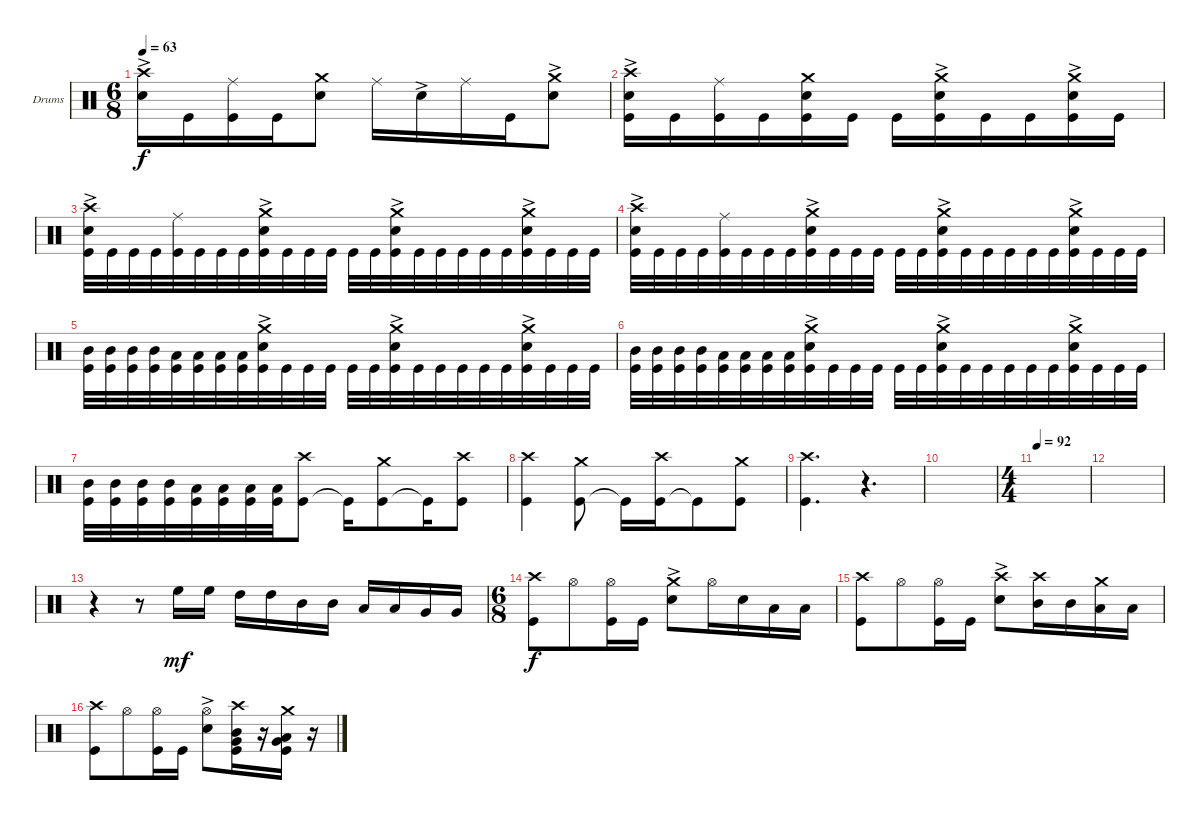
\defaultSystemsLayout 4
\bracketExtendMode groupsimilarinstruments
\firstSystemTrackNameOrientation horizontal
\otherSystemsTrackNameOrientation horizontal
\track ("Drumkit" "Drums") {instrument percussion}
\staff {score}
\articulation defaults
\ts (6 8)
\tempo 63
\clef neutral
\ks c
("Snare (hit) 2"{ac} "Crash high (hit)").16{dy f} "Kick (hit)".16 ("Kick (hit)" "Ride (middle)").16 "Kick (hit)".16 ("Snare (hit) 2" "Crash medium (hit)").8 "Ride (middle)".16 "Snare (hit) 2"{ac}.16 "Ride (middle)".16 "Kick (hit)".16 ("Snare (hit) 2"{ac} "Crash medium (hit)").8 |
("Snare (hit) 2"{ac} "Crash high (hit)" "Kick (hit)").16 "Kick (hit)".16 ("Kick (hit)" "Ride (middle)").16 "Kick (hit)".16 ("Snare (hit) 2" "Crash medium (hit)" "Kick (hit)").16 "Kick (hit)".16 "Kick (hit)".16 ("Snare (hit) 2"{ac} "Kick (hit)" "Crash medium (hit)").16 "Kick (hit)".16 "Kick (hit)".16 ("Snare (hit) 2"{ac} "Crash medium (hit)" "Kick (hit)").16 "Kick (hit)".16 |
("Snare (hit) 2"{ac} "Crash high (hit)" "Kick (hit)").32 "Kick (hit)".32 "Kick (hit)".32 "Kick (hit)".32 ("Kick (hit)" "Ride (middle)").32 "Kick (hit)".32 "Kick (hit)".32 "Kick (hit)".32 ("Snare (hit) 2"{ac} "Crash medium (hit)" "Kick (hit)").32 "Kick (hit)".32 "Kick (hit)".32 "Kick (hit)".32 "Kick (hit)".32 "Kick (hit)".32 ("Kick (hit)" "Snare (hit) 2"{ac} "Crash medium (hit)").32 "Kick (hit)".32 "Kick (hit)".32 "Kick (hit)".32 "Kick (hit)".32 "Kick (hit)".32 ("Kick (hit)" "Snare (hit) 2"{ac} "Crash medium (hit)").32 "Kick (hit)".32 "Kick (hit)".32 "Kick (hit)".32 |
("Snare (hit) 2"{ac} "Crash high (hit)" "Kick (hit)").32 "Kick (hit)".32 "Kick (hit)".32 "Kick (hit)".32 ("Kick (hit)" "Ride (middle)").32 "Kick (hit)".32 "Kick (hit)".32 "Kick (hit)".32 ("Snare (hit) 2"{ac} "Crash medium (hit)" "Kick (hit)").32 "Kick (hit)".32 "Kick (hit)".32 "Kick (hit)".32 "Kick (hit)".32 "Kick (hit)".32 ("Kick (hit)" "Snare (hit) 2"{ac} "Crash medium (hit)").32 "Kick (hit)".32 "Kick (hit)".32 "Kick (hit)".32 "Kick (hit)".32 "Kick (hit)".32 ("Kick (hit)" "Snare (hit) 2"{ac} "Crash medium (hit)").32 "Kick (hit)".32 "Kick (hit)".32 "Kick (hit)".32 |
("Kick (hit)" "Mid Tom (hit)").32 ("Kick (hit)" "Mid Tom (hit)").32 ("Kick (hit)" "Mid Tom (hit)").32 ("Kick (hit)" "Mid Tom (hit)").32 ("Kick (hit)" "Low Tom (hit)").32 ("Kick (hit)" "Low Tom (hit)").32 ("Kick (hit)" "Low Tom (hit)").32 ("Kick (hit)" "Low Tom (hit)").32 ("Snare (hit) 2"{ac} "Crash medium (hit)" "Kick (hit)").32 "Kick (hit)".32 "Kick (hit)".32 "Kick (hit)".32 "Kick (hit)".32 "Kick (hit)".32 ("Kick (hit)" "Snare (hit) 2"{ac} "Crash medium (hit)").32 "Kick (hit)".32 "Kick (hit)".32 "Kick (hit)".32 "Kick (hit)".32 "Kick (hit)".32 ("Kick (hit)" "Snare (hit) 2"{ac} "Crash medium (hit)").32 "Kick (hit)".32 "Kick (hit)".32 "Kick (hit)".32 |
("Kick (hit)" "Mid Tom (hit)").32 ("Kick (hit)" "Mid Tom (hit)").32 ("Kick (hit)" "Mid Tom (hit)").32 ("Kick (hit)" "Mid Tom (hit)").32 ("Kick (hit)" "Low Tom (hit)").32 ("Kick (hit)" "Low Tom (hit)").32 ("Kick (hit)" "Low Tom (hit)").32 ("Kick (hit)" "Low Tom (hit)").32 ("Snare (hit) 2"{ac} "Crash medium (hit)" "Kick (hit)").32 "Kick (hit)".32 "Kick (hit)".32 "Kick (hit)".32 "Kick (hit)".32 "Kick (hit)".32 ("Kick (hit)" "Snare (hit) 2"{ac} "Crash medium (hit)").32 "Kick (hit)".32 "Kick (hit)".32 "Kick (hit)".32 "Kick (hit)".32 "Kick (hit)".32 ("Kick (hit)" "Snare (hit) 2"{ac} "Crash medium (hit)").32 "Kick (hit)".32 "Kick (hit)".32 "Kick (hit)".32 |
("Kick (hit)" "Mid Tom (hit)").32 ("Kick (hit)" "Mid Tom (hit)").32 ("Kick (hit)" "Mid Tom (hit)").32 ("Kick (hit)" "Mid Tom (hit)").32 ("Kick (hit)" "Low Tom (hit)").32 ("Kick (hit)" "Low Tom (hit)").32 ("Kick (hit)" "Low Tom (hit)").32 ("Kick (hit)" "Low Tom (hit)").32 ("Kick (hit)" "Crash high (hit)").8 "Kick (hit)"{t}.16 ("Kick (hit)" "Crash medium (hit)").8 "Kick (hit)"{t}.16 ("Kick (hit)" "Crash high (hit)").8 |
("Kick (hit)" "Crash high (hit)").4 ("Kick (hit)" "Crash medium (hit)").8 "Kick (hit)"{t}.16 ("Kick (hit)" "Crash high (hit)").16 "Kick (hit)"{t}.8 ("Kick (hit)" "Crash medium (hit)").8 |
("Kick (hit)" "Crash high (hit)").4{d} r.4{d} |
|
\ts (4 4)
\tempo 92
|
|
r.4 r.8 "High Floor Tom (hit)".16{dy mf} "High Floor Tom (hit)".16 "High Tom (hit)".16 "High Tom (hit)".16 "Mid Tom (hit)".16 "Mid Tom (hit)".16 "Low Tom (hit)".16 "Low Tom (hit)".16 "Very Low Tom (hit)".16 "Very Low Tom (hit)".16 |
\ts (6 8)
("Kick (hit)" "Crash high (hit)").8{dy f} "Hi-Hat (open)".8 ("Hi-Hat (open)" "Kick (hit)").16 "Kick (hit)".16 ("Snare (hit) 2"{ac} "Crash medium (hit)").8 "Hi-Hat (open)".16 "Snare (hit) 2".16 "Low Tom (hit)".16 "Low Tom (hit)".16 |
("Kick (hit)" "Crash high (hit)").8 "Hi-Hat (open)".8 ("Hi-Hat (open)" "Kick (hit)").16 "Kick (hit)".16 ("Snare (hit) 2"{ac} "Crash high (hit)").8 ("Mid Tom (hit)" "Crash high (hit)").16 "Mid Tom (hit)".16 ("Low Tom (hit)" "Crash medium (hit)").16 "Low Tom (hit)".16 |
("Kick (hit)" "Crash high (hit)").8 "Hi-Hat (open)".8 ("Hi-Hat (open)" "Kick (hit)").16 "Kick (hit)".16 ("Snare (hit) 2"{ac} "Hi-Hat (open)").8 ("Mid Tom (hit)" "Very Low Tom (hit)" "Kick (hit)" "Crash high (hit)").16 r.16 ("Low Tom (hit)" "Kick (hit)" "Very Low Tom (hit)" "Crash medium (hit)").16 r.16
